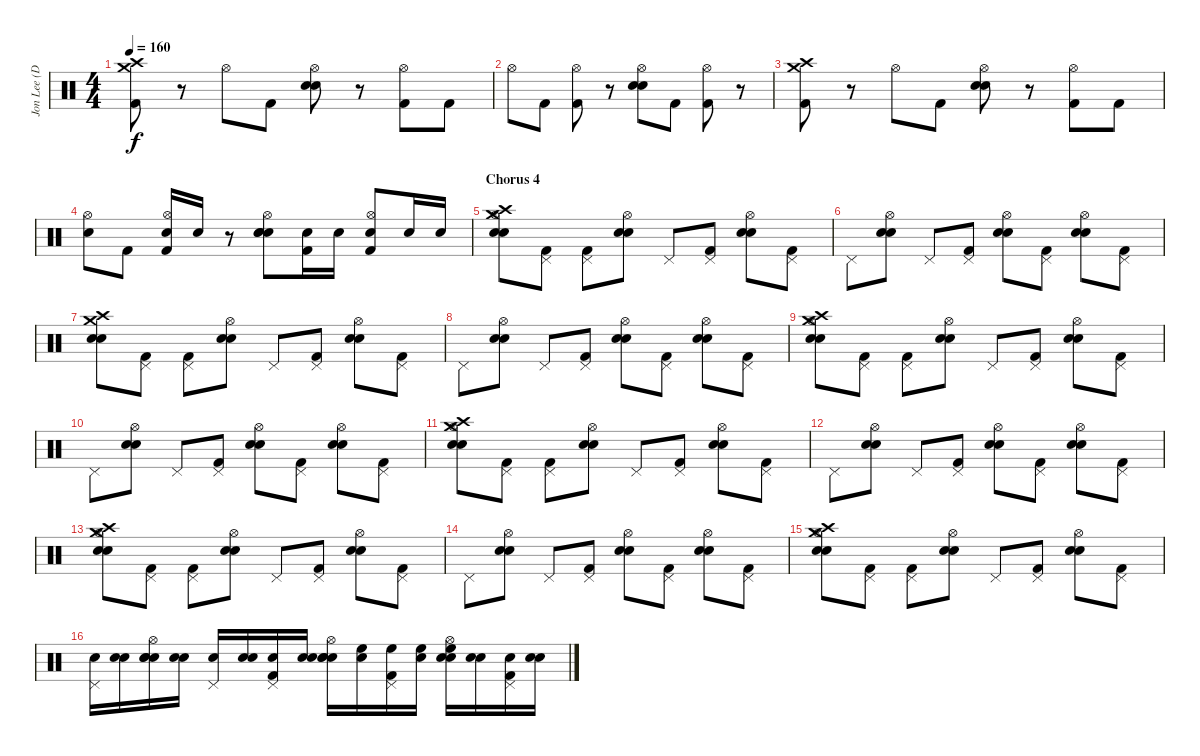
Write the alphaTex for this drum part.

\track ("Jon Lee (Drums)" "Jon Lee (D") {instrument percussion}
\staff {score}
\articulation defaults
\ts (4 4)
\tempo 160
\clef neutral
\ks c
("Crash high (hit)" "Crash medium (hit)" "Kick (hit) 2").8{dy f} r.8 "Hi-Hat (open)".8 "Kick (hit) 2".8 ("Hi-Hat (open)" "Electric Snare (hit)" "Snare (hit) 2").8 r.8 ("Hi-Hat (open)" "Kick (hit) 2").8 "Kick (hit) 2".8 |
"Hi-Hat (open)".8 "Kick (hit) 2".8 ("Hi-Hat (open)" "Kick (hit) 2").8 r.8 ("Hi-Hat (open)" "Electric Snare (hit)" "Snare (hit) 2").8 "Kick (hit) 2".8 ("Hi-Hat (open)" "Kick (hit) 2").8 r.8 |
("Crash high (hit)" "Crash medium (hit)" "Kick (hit) 2").8 r.8 "Hi-Hat (open)".8 "Kick (hit) 2".8 ("Hi-Hat (open)" "Electric Snare (hit)" "Snare (hit) 2").8 r.8 ("Hi-Hat (open)" "Kick (hit) 2").8 "Kick (hit) 2".8 |
("Hi-Hat (open)" "Electric Snare (hit)").8 "Kick (hit) 2".8 ("Hi-Hat (open)" "Electric Snare (hit)" "Kick (hit) 2").16 "Electric Snare (hit)".16 r.8 ("Hi-Hat (open)" "Electric Snare (hit)" "Electric Snare (hit)" "Snare (hit) 2").8 ("Electric Snare (hit)" "Kick (hit) 2").16 "Electric Snare (hit)".16 ("Hi-Hat (open)" "Electric Snare (hit)" "Kick (hit) 2").8 "Electric Snare (hit)".16 "Electric Snare (hit)".16 |
\section ("" "Chorus 4")
("Snare (hit) 2" "Electric Snare (hit)" "Crash medium (hit)" "Hi-Hat (open)" "Crash high (hit)").8 ("Kick (hit) 2" "Pedal Hi-Hat (hit)").8 ("Kick (hit) 2" "Pedal Hi-Hat (hit)").8 ("Snare (hit) 2" "Electric Snare (hit)" "Hi-Hat (open)").8 "Pedal Hi-Hat (hit)".8 ("Kick (hit) 2" "Pedal Hi-Hat (hit)").8 ("Snare (hit) 2" "Electric Snare (hit)" "Hi-Hat (open)").8 ("Kick (hit) 2" "Pedal Hi-Hat (hit)").8 |
"Pedal Hi-Hat (hit)".8 ("Snare (hit) 2" "Electric Snare (hit)" "Hi-Hat (open)").8 "Pedal Hi-Hat (hit)".8 ("Kick (hit) 2" "Pedal Hi-Hat (hit)").8 ("Snare (hit) 2" "Electric Snare (hit)" "Hi-Hat (open)").8 ("Kick (hit) 2" "Pedal Hi-Hat (hit)").8 ("Snare (hit) 2" "Electric Snare (hit)" "Hi-Hat (open)").8 ("Kick (hit) 2" "Pedal Hi-Hat (hit)").8 |
("Snare (hit) 2" "Electric Snare (hit)" "Crash medium (hit)" "Crash high (hit)").8 ("Kick (hit) 2" "Pedal Hi-Hat (hit)").8 ("Kick (hit) 2" "Pedal Hi-Hat (hit)").8 ("Snare (hit) 2" "Electric Snare (hit)" "Hi-Hat (open)").8 "Pedal Hi-Hat (hit)".8 ("Kick (hit) 2" "Pedal Hi-Hat (hit)").8 ("Snare (hit) 2" "Electric Snare (hit)" "Hi-Hat (open)").8 ("Kick (hit) 2" "Pedal Hi-Hat (hit)").8 |
"Pedal Hi-Hat (hit)".8 ("Snare (hit) 2" "Electric Snare (hit)" "Hi-Hat (open)").8 "Pedal Hi-Hat (hit)".8 ("Kick (hit) 2" "Pedal Hi-Hat (hit)").8 ("Snare (hit) 2" "Electric Snare (hit)" "Hi-Hat (open)").8 ("Kick (hit) 2" "Pedal Hi-Hat (hit)").8 ("Snare (hit) 2" "Electric Snare (hit)" "Hi-Hat (open)").8 ("Kick (hit) 2" "Pedal Hi-Hat (hit)").8 |
("Snare (hit) 2" "Electric Snare (hit)" "Crash medium (hit)" "Hi-Hat (open)" "Crash high (hit)").8 ("Kick (hit) 2" "Pedal Hi-Hat (hit)").8 ("Kick (hit) 2" "Pedal Hi-Hat (hit)").8 ("Snare (hit) 2" "Electric Snare (hit)" "Hi-Hat (open)").8 "Pedal Hi-Hat (hit)".8 ("Kick (hit) 2" "Pedal Hi-Hat (hit)").8 ("Snare (hit) 2" "Electric Snare (hit)" "Hi-Hat (open)").8 ("Kick (hit) 2" "Pedal Hi-Hat (hit)").8 |
"Pedal Hi-Hat (hit)".8 ("Snare (hit) 2" "Electric Snare (hit)" "Hi-Hat (open)").8 "Pedal Hi-Hat (hit)".8 ("Kick (hit) 2" "Pedal Hi-Hat (hit)").8 ("Snare (hit) 2" "Electric Snare (hit)" "Hi-Hat (open)").8 ("Kick (hit) 2" "Pedal Hi-Hat (hit)").8 ("Snare (hit) 2" "Electric Snare (hit)" "Hi-Hat (open)").8 ("Kick (hit) 2" "Pedal Hi-Hat (hit)").8 |
("Snare (hit) 2" "Electric Snare (hit)" "Crash medium (hit)" "Hi-Hat (open)" "Crash high (hit)").8 ("Kick (hit) 2" "Pedal Hi-Hat (hit)").8 ("Kick (hit) 2" "Pedal Hi-Hat (hit)").8 ("Snare (hit) 2" "Electric Snare (hit)" "Hi-Hat (open)").8 "Pedal Hi-Hat (hit)".8 ("Kick (hit) 2" "Pedal Hi-Hat (hit)").8 ("Snare (hit) 2" "Electric Snare (hit)" "Hi-Hat (open)").8 ("Kick (hit) 2" "Pedal Hi-Hat (hit)").8 |
"Pedal Hi-Hat (hit)".8 ("Snare (hit) 2" "Electric Snare (hit)" "Hi-Hat (open)").8 "Pedal Hi-Hat (hit)".8 ("Kick (hit) 2" "Pedal Hi-Hat (hit)").8 ("Snare (hit) 2" "Electric Snare (hit)" "Hi-Hat (open)").8 ("Kick (hit) 2" "Pedal Hi-Hat (hit)").8 ("Snare (hit) 2" "Electric Snare (hit)" "Hi-Hat (open)").8 ("Kick (hit) 2" "Pedal Hi-Hat (hit)").8 |
("Snare (hit) 2" "Electric Snare (hit)" "Crash medium (hit)" "Hi-Hat (open)" "Crash high (hit)").8 ("Kick (hit) 2" "Pedal Hi-Hat (hit)").8 ("Kick (hit) 2" "Pedal Hi-Hat (hit)").8 ("Snare (hit) 2" "Electric Snare (hit)" "Hi-Hat (open)").8 "Pedal Hi-Hat (hit)".8 ("Kick (hit) 2" "Pedal Hi-Hat (hit)").8 ("Snare (hit) 2" "Electric Snare (hit)" "Hi-Hat (open)").8 ("Kick (hit) 2" "Pedal Hi-Hat (hit)").8 |
"Pedal Hi-Hat (hit)".8 ("Snare (hit) 2" "Electric Snare (hit)" "Hi-Hat (open)").8 "Pedal Hi-Hat (hit)".8 ("Kick (hit) 2" "Pedal Hi-Hat (hit)").8 ("Snare (hit) 2" "Electric Snare (hit)" "Hi-Hat (open)").8 ("Kick (hit) 2" "Pedal Hi-Hat (hit)").8 ("Snare (hit) 2" "Electric Snare (hit)" "Hi-Hat (open)").8 ("Kick (hit) 2" "Pedal Hi-Hat (hit)").8 |
("Snare (hit) 2" "Electric Snare (hit)" "Crash medium (hit)" "Hi-Hat (open)" "Crash high (hit)").8 ("Kick (hit) 2" "Pedal Hi-Hat (hit)").8 ("Kick (hit) 2" "Pedal Hi-Hat (hit)").8 ("Snare (hit) 2" "Electric Snare (hit)" "Hi-Hat (open)").8 "Pedal Hi-Hat (hit)".8 ("Kick (hit) 2" "Pedal Hi-Hat (hit)").8 ("Snare (hit) 2" "Electric Snare (hit)" "Hi-Hat (open)").8 ("Kick (hit) 2" "Pedal Hi-Hat (hit)").8 |
("Electric Snare (hit)" "Pedal Hi-Hat (hit)").16 ("Electric Snare (hit)" "Snare (hit) 2").16 ("Snare (hit) 2" "Electric Snare (hit)" "Electric Snare (hit)" "Hi-Hat (open)").16 ("Electric Snare (hit)" "Snare (hit) 2").16 ("Electric Snare (hit)" "Pedal Hi-Hat (hit)").16 ("Electric Snare (hit)" "Snare (hit) 2").16 ("Kick (hit) 2" "Electric Snare (hit)" "Pedal Hi-Hat (hit)").16 ("Electric Snare (hit)" "Snare (hit) 2").16 ("Snare (hit) 2" "Electric Snare (hit)" "Electric Snare (hit)" "Hi-Hat (open)").16 ("High Floor Tom (hit)" "Snare (hit) 2").16 ("Kick (hit) 2" "High Floor Tom (hit)" "Pedal Hi-Hat (hit)").16 ("High Floor Tom (hit)" "Snare (hit) 2").16 ("Snare (hit) 2" "Electric Snare (hit)" "High Floor Tom (hit)" "Hi-Hat (open)").16 ("Electric Snare (hit)" "Snare (hit) 2").16 ("Kick (hit) 2" "Electric Snare (hit)" "Pedal Hi-Hat (hit)").16 ("Electric Snare (hit)" "Snare (hit) 2").16
